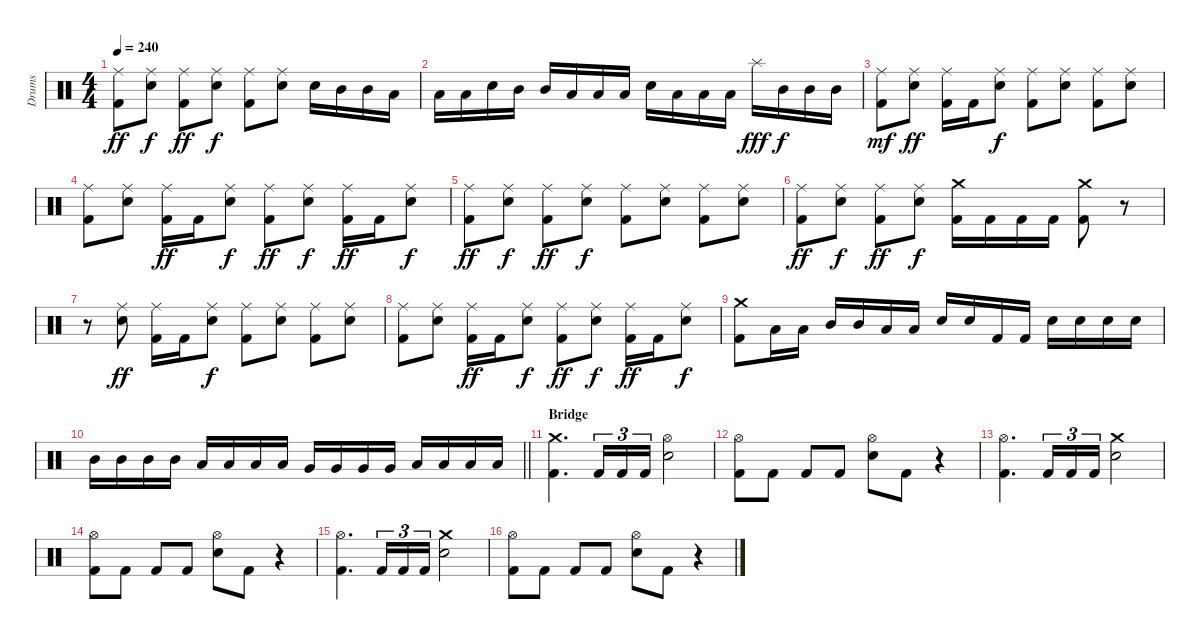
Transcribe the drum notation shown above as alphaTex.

\track ("Drums" "Drums") {instrument percussion}
\staff {score}
\articulation defaults
\ts (4 4)
\tempo 240
\clef neutral
\ks c
("Ride (middle)" "Kick (hit) 2").8{dy ff} ("Ride (middle)" "Electric Snare (hit)").8{dy f} ("Ride (middle)" "Kick (hit) 2").8{dy ff} ("Ride (middle)" "Electric Snare (hit)").8{dy f} ("Ride (middle)" "Kick (hit) 2").8 ("Ride (middle)" "Electric Snare (hit)").8 "Electric Snare (hit)".16 "Mid Tom (hit)".16 "Mid Tom (hit)".16 "Low Tom (hit)".16 |
"Low Tom (hit)".16 "Low Tom (hit)".16 "Electric Snare (hit)".16 "Mid Tom (hit)".16 "Mid Tom (hit)".16 "Low Tom (hit)".16 "Low Tom (hit)".16 "Low Tom (hit)".16 "Electric Snare (hit)".16 "Low Tom (hit)".16 "Low Tom (hit)".16 "Low Tom (hit)".16 "Splash (hit)".16{dy fff} "Mid Tom (hit)".16{dy f} "Mid Tom (hit)".16 "Mid Tom (hit)".16 |
("Ride (middle)" "Kick (hit) 2").8{dy mf} ("Ride (middle)" "Electric Snare (hit)").8{dy ff} ("Ride (middle)" "Kick (hit) 2").16 "Kick (hit) 2".16 ("Ride (middle)" "Electric Snare (hit)").8{dy f} ("Ride (middle)" "Kick (hit) 2").8 ("Ride (middle)" "Electric Snare (hit)").8 ("Ride (middle)" "Kick (hit) 2").8 ("Ride (middle)" "Electric Snare (hit)").8 |
("Ride (middle)" "Kick (hit) 2").8 ("Ride (middle)" "Electric Snare (hit)").8 ("Ride (middle)" "Kick (hit) 2").16{dy ff} "Kick (hit) 2".16 ("Ride (middle)" "Electric Snare (hit)").8{dy f} ("Ride (middle)" "Kick (hit) 2").8{dy ff} ("Ride (middle)" "Electric Snare (hit)").8{dy f} ("Ride (middle)" "Kick (hit) 2").16{dy ff} "Kick (hit) 2".16 ("Ride (middle)" "Electric Snare (hit)").8{dy f} |
("Ride (middle)" "Kick (hit) 2").8{dy ff} ("Ride (middle)" "Electric Snare (hit)").8{dy f} ("Ride (middle)" "Kick (hit) 2").8{dy ff} ("Ride (middle)" "Electric Snare (hit)").8{dy f} ("Ride (middle)" "Kick (hit) 2").8 ("Ride (middle)" "Electric Snare (hit)").8 ("Ride (middle)" "Kick (hit) 2").8 ("Ride (middle)" "Electric Snare (hit)").8 |
("Ride (middle)" "Kick (hit) 2").8{dy ff} ("Ride (middle)" "Electric Snare (hit)").8{dy f} ("Ride (middle)" "Kick (hit) 2").8{dy ff} ("Ride (middle)" "Electric Snare (hit)").8{dy f} ("Crash medium (hit)" "Kick (hit) 2").16 "Kick (hit) 2".16 "Kick (hit) 2".16 "Kick (hit) 2".16 ("Crash medium (hit)" "Kick (hit) 2").8 r.8 |
r.8 ("Ride (middle)" "Electric Snare (hit)").8{dy ff} ("Ride (middle)" "Kick (hit) 2").16 "Kick (hit) 2".16 ("Ride (middle)" "Electric Snare (hit)").8{dy f} ("Ride (middle)" "Kick (hit) 2").8 ("Ride (middle)" "Electric Snare (hit)").8 ("Ride (middle)" "Kick (hit) 2").8 ("Ride (middle)" "Electric Snare (hit)").8 |
("Ride (middle)" "Kick (hit) 2").8 ("Ride (middle)" "Electric Snare (hit)").8 ("Ride (middle)" "Kick (hit) 2").16{dy ff} "Kick (hit) 2".16 ("Ride (middle)" "Electric Snare (hit)").8{dy f} ("Ride (middle)" "Kick (hit) 2").8{dy ff} ("Ride (middle)" "Electric Snare (hit)").8{dy f} ("Ride (middle)" "Kick (hit) 2").16{dy ff} "Kick (hit) 2".16 ("Ride (middle)" "Electric Snare (hit)").8{dy f} |
("Crash medium (hit)" "Kick (hit) 2").8 "Low Tom (hit)".16 "Low Tom (hit)".16 "Mid Tom (hit)".16 "Mid Tom (hit)".16 "Low Tom (hit)".16 "Low Tom (hit)".16 "Electric Snare (hit)".16 "Electric Snare (hit)".16 "Kick (hit) 2".16 "Kick (hit) 2".16 "Electric Snare (hit)".16 "Electric Snare (hit)".16 "Electric Snare (hit)".16 "Electric Snare (hit)".16 |
\barLineRight lightlight "Mid Tom (hit)".16 "Mid Tom (hit)".16 "Mid Tom (hit)".16 "Mid Tom (hit)".16 "Low Tom (hit)".16 "Low Tom (hit)".16 "Low Tom (hit)".16 "Low Tom (hit)".16 "Very Low Tom (hit)".16 "Very Low Tom (hit)".16 "Very Low Tom (hit)".16 "Very Low Tom (hit)".16 "Low Floor Tom (hit)".16 "Low Floor Tom (hit)".16 "Low Floor Tom (hit)".16 "Low Floor Tom (hit)".16
|
\section ("" "Bridge")
("Crash medium (hit)" "Kick (hit) 2").4{d} "Kick (hit) 2".16{tu (3 2)} "Kick (hit) 2".16{tu (3 2)} "Kick (hit) 2".16{tu (3 2)} ("Hi-Hat (open)" "Electric Snare (hit)").2 |
("Hi-Hat (open)" "Kick (hit) 2").8 "Kick (hit) 2".8 "Kick (hit) 2".8 "Kick (hit) 2".8 ("Hi-Hat (open)" "Electric Snare (hit)").8 "Kick (hit) 2".8 r.4 |
("Hi-Hat (open)" "Kick (hit) 2").4{d} "Kick (hit) 2".16{tu (3 2)} "Kick (hit) 2".16{tu (3 2)} "Kick (hit) 2".16{tu (3 2)} ("Crash medium (hit)" "Electric Snare (hit)").2 |
("Hi-Hat (open)" "Kick (hit) 2").8 "Kick (hit) 2".8 "Kick (hit) 2".8 "Kick (hit) 2".8 ("Hi-Hat (open)" "Electric Snare (hit)").8 "Kick (hit) 2".8 r.4 |
("Hi-Hat (open)" "Kick (hit) 2").4{d} "Kick (hit) 2".16{tu (3 2)} "Kick (hit) 2".16{tu (3 2)} "Kick (hit) 2".16{tu (3 2)} ("Crash medium (hit)" "Electric Snare (hit)").2 |
("Hi-Hat (open)" "Kick (hit) 2").8 "Kick (hit) 2".8 "Kick (hit) 2".8 "Kick (hit) 2".8 ("Hi-Hat (open)" "Electric Snare (hit)").8 "Kick (hit) 2".8 r.4
